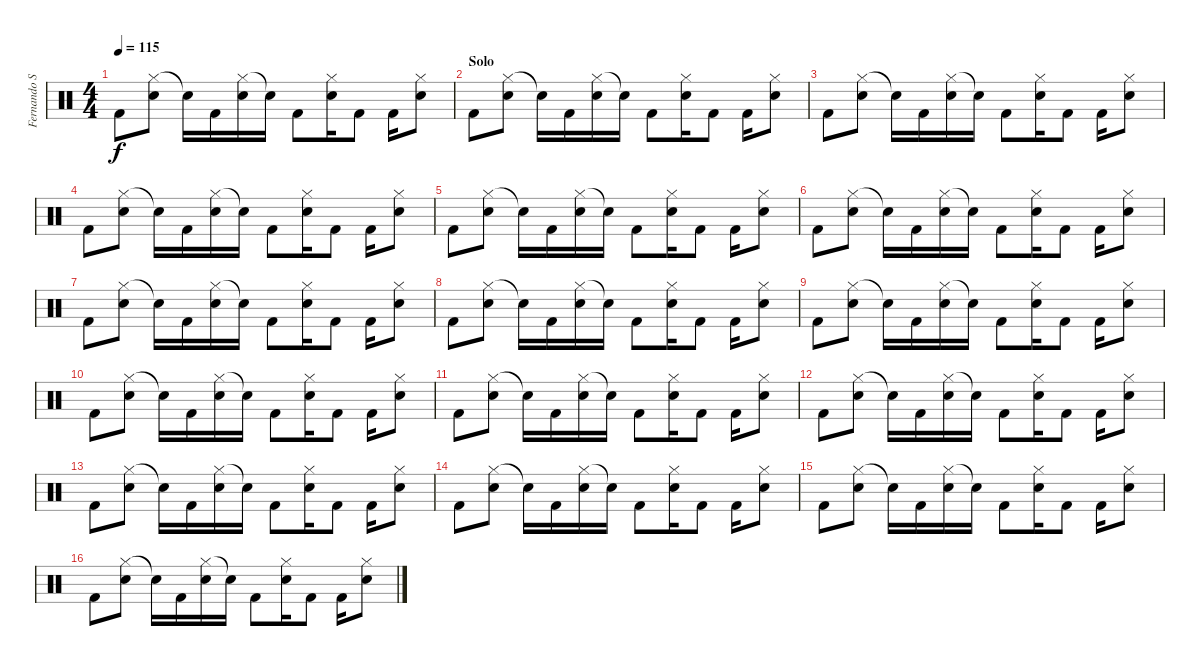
\track ("Fernando Scarcella" "Fernando S") {instrument percussion}
\staff {score}
\articulation defaults
\ts (4 4)
\tempo 115
\clef neutral
\ks c "Kick (hit) 2".8{dy f}
("Hi-Hat (closed)" "Snare (hit) 2").8 "Snare (hit)"{t}.16 "Kick (hit) 2".16 ("Hi-Hat (closed)" "Snare (hit) 2").16 "Snare (hit)"{t}.16 "Kick (hit) 2".8 ("Hi-Hat (closed)" "Snare (hit) 2").16 "Kick (hit) 2".8 "Kick (hit) 2".16 ("Hi-Hat (closed)" "Snare (hit) 2").8 |
\section ("" "Solo")
"Kick (hit) 2".8 ("Hi-Hat (closed)" "Snare (hit) 2").8 "Snare (hit)"{t}.16 "Kick (hit) 2".16 ("Hi-Hat (closed)" "Snare (hit) 2").16 "Snare (hit)"{t}.16 "Kick (hit) 2".8 ("Hi-Hat (closed)" "Snare (hit) 2").16 "Kick (hit) 2".8 "Kick (hit) 2".16 ("Hi-Hat (closed)" "Snare (hit) 2").8 |
"Kick (hit) 2".8 ("Hi-Hat (closed)" "Snare (hit) 2").8 "Snare (hit)"{t}.16 "Kick (hit) 2".16 ("Hi-Hat (closed)" "Snare (hit) 2").16 "Snare (hit)"{t}.16 "Kick (hit) 2".8 ("Hi-Hat (closed)" "Snare (hit) 2").16 "Kick (hit) 2".8 "Kick (hit) 2".16 ("Hi-Hat (closed)" "Snare (hit) 2").8 |
"Kick (hit) 2".8 ("Hi-Hat (closed)" "Snare (hit) 2").8 "Snare (hit)"{t}.16 "Kick (hit) 2".16 ("Hi-Hat (closed)" "Snare (hit) 2").16 "Snare (hit)"{t}.16 "Kick (hit) 2".8 ("Hi-Hat (closed)" "Snare (hit) 2").16 "Kick (hit) 2".8 "Kick (hit) 2".16 ("Hi-Hat (closed)" "Snare (hit) 2").8 |
"Kick (hit) 2".8 ("Hi-Hat (closed)" "Snare (hit) 2").8 "Snare (hit)"{t}.16 "Kick (hit) 2".16 ("Hi-Hat (closed)" "Snare (hit) 2").16 "Snare (hit)"{t}.16 "Kick (hit) 2".8 ("Hi-Hat (closed)" "Snare (hit) 2").16 "Kick (hit) 2".8 "Kick (hit) 2".16 ("Hi-Hat (closed)" "Snare (hit) 2").8 |
"Kick (hit) 2".8 ("Hi-Hat (closed)" "Snare (hit) 2").8 "Snare (hit)"{t}.16 "Kick (hit) 2".16 ("Hi-Hat (closed)" "Snare (hit) 2").16 "Snare (hit)"{t}.16 "Kick (hit) 2".8 ("Hi-Hat (closed)" "Snare (hit) 2").16 "Kick (hit) 2".8 "Kick (hit) 2".16 ("Hi-Hat (closed)" "Snare (hit) 2").8 |
"Kick (hit) 2".8 ("Hi-Hat (closed)" "Snare (hit) 2").8 "Snare (hit)"{t}.16 "Kick (hit) 2".16 ("Hi-Hat (closed)" "Snare (hit) 2").16 "Snare (hit)"{t}.16 "Kick (hit) 2".8 ("Hi-Hat (closed)" "Snare (hit) 2").16 "Kick (hit) 2".8 "Kick (hit) 2".16 ("Hi-Hat (closed)" "Snare (hit) 2").8 |
"Kick (hit) 2".8 ("Hi-Hat (closed)" "Snare (hit) 2").8 "Snare (hit)"{t}.16 "Kick (hit) 2".16 ("Hi-Hat (closed)" "Snare (hit) 2").16 "Snare (hit)"{t}.16 "Kick (hit) 2".8 ("Hi-Hat (closed)" "Snare (hit) 2").16 "Kick (hit) 2".8 "Kick (hit) 2".16 ("Hi-Hat (closed)" "Snare (hit) 2").8 |
"Kick (hit) 2".8 ("Hi-Hat (closed)" "Snare (hit) 2").8 "Snare (hit)"{t}.16 "Kick (hit) 2".16 ("Hi-Hat (closed)" "Snare (hit) 2").16 "Snare (hit)"{t}.16 "Kick (hit) 2".8 ("Hi-Hat (closed)" "Snare (hit) 2").16 "Kick (hit) 2".8 "Kick (hit) 2".16 ("Hi-Hat (closed)" "Snare (hit) 2").8 |
"Kick (hit) 2".8 ("Hi-Hat (closed)" "Snare (hit) 2").8 "Snare (hit)"{t}.16 "Kick (hit) 2".16 ("Hi-Hat (closed)" "Snare (hit) 2").16 "Snare (hit)"{t}.16 "Kick (hit) 2".8 ("Hi-Hat (closed)" "Snare (hit) 2").16 "Kick (hit) 2".8 "Kick (hit) 2".16 ("Hi-Hat (closed)" "Snare (hit) 2").8 |
"Kick (hit) 2".8 ("Hi-Hat (closed)" "Snare (hit) 2").8 "Snare (hit)"{t}.16 "Kick (hit) 2".16 ("Hi-Hat (closed)" "Snare (hit) 2").16 "Snare (hit)"{t}.16 "Kick (hit) 2".8 ("Hi-Hat (closed)" "Snare (hit) 2").16 "Kick (hit) 2".8 "Kick (hit) 2".16 ("Hi-Hat (closed)" "Snare (hit) 2").8 |
"Kick (hit) 2".8 ("Hi-Hat (closed)" "Snare (hit) 2").8 "Snare (hit)"{t}.16 "Kick (hit) 2".16 ("Hi-Hat (closed)" "Snare (hit) 2").16 "Snare (hit)"{t}.16 "Kick (hit) 2".8 ("Hi-Hat (closed)" "Snare (hit) 2").16 "Kick (hit) 2".8 "Kick (hit) 2".16 ("Hi-Hat (closed)" "Snare (hit) 2").8 |
"Kick (hit) 2".8 ("Hi-Hat (closed)" "Snare (hit) 2").8 "Snare (hit)"{t}.16 "Kick (hit) 2".16 ("Hi-Hat (closed)" "Snare (hit) 2").16 "Snare (hit)"{t}.16 "Kick (hit) 2".8 ("Hi-Hat (closed)" "Snare (hit) 2").16 "Kick (hit) 2".8 "Kick (hit) 2".16 ("Hi-Hat (closed)" "Snare (hit) 2").8 |
"Kick (hit) 2".8 ("Hi-Hat (closed)" "Snare (hit) 2").8 "Snare (hit)"{t}.16 "Kick (hit) 2".16 ("Hi-Hat (closed)" "Snare (hit) 2").16 "Snare (hit)"{t}.16 "Kick (hit) 2".8 ("Hi-Hat (closed)" "Snare (hit) 2").16 "Kick (hit) 2".8 "Kick (hit) 2".16 ("Hi-Hat (closed)" "Snare (hit) 2").8 |
"Kick (hit) 2".8 ("Hi-Hat (closed)" "Snare (hit) 2").8 "Snare (hit)"{t}.16 "Kick (hit) 2".16 ("Hi-Hat (closed)" "Snare (hit) 2").16 "Snare (hit)"{t}.16 "Kick (hit) 2".8 ("Hi-Hat (closed)" "Snare (hit) 2").16 "Kick (hit) 2".8 "Kick (hit) 2".16 ("Hi-Hat (closed)" "Snare (hit) 2").8 |
"Kick (hit) 2".8 ("Hi-Hat (closed)" "Snare (hit) 2").8 "Snare (hit)"{t}.16 "Kick (hit) 2".16 ("Hi-Hat (closed)" "Snare (hit) 2").16 "Snare (hit)"{t}.16 "Kick (hit) 2".8 ("Hi-Hat (closed)" "Snare (hit) 2").16 "Kick (hit) 2".8 "Kick (hit) 2".16 ("Hi-Hat (closed)" "Snare (hit) 2").8
